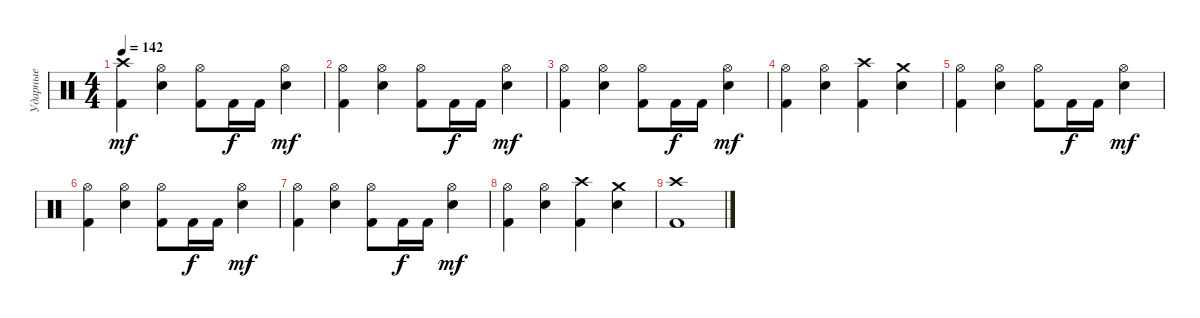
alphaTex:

\track ("Ударные" "Ударные") {instrument percussion}
\staff {score}
\articulation defaults
\ts (4 4)
\tempo 142
\clef neutral
\ks c
("Kick (hit) 2" "Crash high (hit)").4{dy mf} ("Snare (hit) 2" "Hi-Hat (open)").4 ("Kick (hit) 2" "Hi-Hat (open)").8 "Kick (hit) 2".16{dy f} "Kick (hit) 2".16 ("Snare (hit) 2" "Hi-Hat (open)").4{dy mf} |
("Kick (hit) 2" "Hi-Hat (open)").4 ("Snare (hit) 2" "Hi-Hat (open)").4 ("Kick (hit) 2" "Hi-Hat (open)").8 "Kick (hit) 2".16{dy f} "Kick (hit) 2".16 ("Snare (hit) 2" "Hi-Hat (open)").4{dy mf} |
("Kick (hit) 2" "Hi-Hat (open)").4 ("Snare (hit) 2" "Hi-Hat (open)").4 ("Kick (hit) 2" "Hi-Hat (open)").8 "Kick (hit) 2".16{dy f} "Kick (hit) 2".16 ("Snare (hit) 2" "Hi-Hat (open)").4{dy mf} |
("Kick (hit) 2" "Hi-Hat (open)").4 ("Snare (hit) 2" "Hi-Hat (open)").4 ("Kick (hit) 2" "Crash high (hit)").4 ("Snare (hit) 2" "Crash medium (hit)").4 |
("Kick (hit) 2" "Hi-Hat (open)").4 ("Snare (hit) 2" "Hi-Hat (open)").4 ("Kick (hit) 2" "Hi-Hat (open)").8 "Kick (hit) 2".16{dy f} "Kick (hit) 2".16 ("Snare (hit) 2" "Hi-Hat (open)").4{dy mf} |
("Kick (hit) 2" "Hi-Hat (open)").4 ("Snare (hit) 2" "Hi-Hat (open)").4 ("Kick (hit) 2" "Hi-Hat (open)").8 "Kick (hit) 2".16{dy f} "Kick (hit) 2".16 ("Snare (hit) 2" "Hi-Hat (open)").4{dy mf} |
("Kick (hit) 2" "Hi-Hat (open)").4 ("Snare (hit) 2" "Hi-Hat (open)").4 ("Kick (hit) 2" "Hi-Hat (open)").8 "Kick (hit) 2".16{dy f} "Kick (hit) 2".16 ("Snare (hit) 2" "Hi-Hat (open)").4{dy mf} |
("Kick (hit) 2" "Hi-Hat (open)").4 ("Snare (hit) 2" "Hi-Hat (open)").4 ("Kick (hit) 2" "Crash high (hit)").4 ("Snare (hit) 2" "Crash medium (hit)").4 |
("Kick (hit) 2" "Crash high (hit)").1
